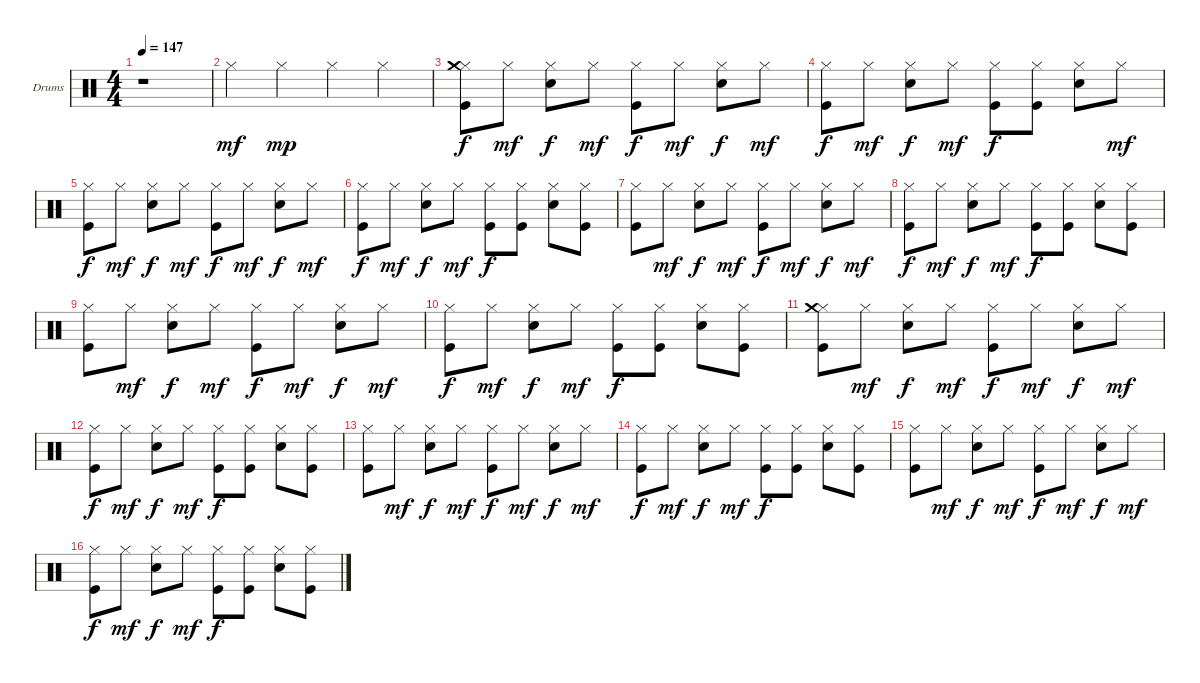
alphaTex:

\bracketExtendMode groupsimilarinstruments
\firstSystemTrackNameOrientation horizontal
\otherSystemsTrackNameOrientation horizontal
\track ("Drumkit" "Drums") {instrument percussion}
\staff {score}
\articulation defaults
\ts (4 4)
\tempo 147
\clef neutral
\ks c
r.1{dy mf} |
"Hi-Hat (closed)".4 "Hi-Hat (closed)".4{dy mp} "Hi-Hat (closed)".4 "Hi-Hat (closed)".4 |
("Hi-Hat (closed)" "Crash medium (hit)" "Kick (hit)").8{dy f} "Hi-Hat (closed)".8{dy mf} ("Hi-Hat (closed)" "Snare (hit) 2").8{dy f} "Hi-Hat (closed)".8{dy mf} ("Hi-Hat (closed)" "Kick (hit)").8{dy f} "Hi-Hat (closed)".8{dy mf} ("Hi-Hat (closed)" "Snare (hit) 2").8{dy f} "Hi-Hat (closed)".8{dy mf} |
("Hi-Hat (closed)" "Kick (hit)").8{dy f} "Hi-Hat (closed)".8{dy mf} ("Hi-Hat (closed)" "Snare (hit) 2").8{dy f} "Hi-Hat (closed)".8{dy mf} ("Hi-Hat (closed)" "Kick (hit)").8{dy f} ("Hi-Hat (closed)" "Kick (hit)").8 ("Hi-Hat (closed)" "Snare (hit) 2").8 "Hi-Hat (closed)".8{dy mf} |
("Hi-Hat (closed)" "Kick (hit)").8{dy f} "Hi-Hat (closed)".8{dy mf} ("Hi-Hat (closed)" "Snare (hit) 2").8{dy f} "Hi-Hat (closed)".8{dy mf} ("Hi-Hat (closed)" "Kick (hit)").8{dy f} "Hi-Hat (closed)".8{dy mf} ("Hi-Hat (closed)" "Snare (hit) 2").8{dy f} "Hi-Hat (closed)".8{dy mf} |
("Hi-Hat (closed)" "Kick (hit)").8{dy f} "Hi-Hat (closed)".8{dy mf} ("Hi-Hat (closed)" "Snare (hit) 2").8{dy f} "Hi-Hat (closed)".8{dy mf} ("Hi-Hat (closed)" "Kick (hit)").8{dy f} ("Hi-Hat (closed)" "Kick (hit)").8 ("Hi-Hat (closed)" "Snare (hit) 2").8 ("Hi-Hat (closed)" "Kick (hit)").8 |
("Hi-Hat (closed)" "Kick (hit)").8 "Hi-Hat (closed)".8{dy mf} ("Hi-Hat (closed)" "Snare (hit) 2").8{dy f} "Hi-Hat (closed)".8{dy mf} ("Hi-Hat (closed)" "Kick (hit)").8{dy f} "Hi-Hat (closed)".8{dy mf} ("Hi-Hat (closed)" "Snare (hit) 2").8{dy f} "Hi-Hat (closed)".8{dy mf} |
("Hi-Hat (closed)" "Kick (hit)").8{dy f} "Hi-Hat (closed)".8{dy mf} ("Hi-Hat (closed)" "Snare (hit) 2").8{dy f} "Hi-Hat (closed)".8{dy mf} ("Hi-Hat (closed)" "Kick (hit)").8{dy f} ("Hi-Hat (closed)" "Kick (hit)").8 ("Hi-Hat (closed)" "Snare (hit) 2").8 ("Hi-Hat (closed)" "Kick (hit)").8 |
("Hi-Hat (closed)" "Kick (hit)").8 "Hi-Hat (closed)".8{dy mf} ("Hi-Hat (closed)" "Snare (hit) 2").8{dy f} "Hi-Hat (closed)".8{dy mf} ("Hi-Hat (closed)" "Kick (hit)").8{dy f} "Hi-Hat (closed)".8{dy mf} ("Hi-Hat (closed)" "Snare (hit) 2").8{dy f} "Hi-Hat (closed)".8{dy mf} |
("Hi-Hat (closed)" "Kick (hit)").8{dy f} "Hi-Hat (closed)".8{dy mf} ("Hi-Hat (closed)" "Snare (hit) 2").8{dy f} "Hi-Hat (closed)".8{dy mf} ("Hi-Hat (closed)" "Kick (hit)").8{dy f} ("Hi-Hat (closed)" "Kick (hit)").8 ("Hi-Hat (closed)" "Snare (hit) 2").8 ("Hi-Hat (closed)" "Kick (hit)").8 |
("Hi-Hat (closed)" "Crash medium (hit)" "Kick (hit)").8 "Hi-Hat (closed)".8{dy mf} ("Hi-Hat (closed)" "Snare (hit) 2").8{dy f} "Hi-Hat (closed)".8{dy mf} ("Hi-Hat (closed)" "Kick (hit)").8{dy f} "Hi-Hat (closed)".8{dy mf} ("Hi-Hat (closed)" "Snare (hit) 2").8{dy f} "Hi-Hat (closed)".8{dy mf} |
("Hi-Hat (closed)" "Kick (hit)").8{dy f} "Hi-Hat (closed)".8{dy mf} ("Hi-Hat (closed)" "Snare (hit) 2").8{dy f} "Hi-Hat (closed)".8{dy mf} ("Hi-Hat (closed)" "Kick (hit)").8{dy f} ("Hi-Hat (closed)" "Kick (hit)").8 ("Hi-Hat (closed)" "Snare (hit) 2").8 ("Hi-Hat (closed)" "Kick (hit)").8 |
("Hi-Hat (closed)" "Kick (hit)").8 "Hi-Hat (closed)".8{dy mf} ("Hi-Hat (closed)" "Snare (hit) 2").8{dy f} "Hi-Hat (closed)".8{dy mf} ("Hi-Hat (closed)" "Kick (hit)").8{dy f} "Hi-Hat (closed)".8{dy mf} ("Hi-Hat (closed)" "Snare (hit) 2").8{dy f} "Hi-Hat (closed)".8{dy mf} |
("Hi-Hat (closed)" "Kick (hit)").8{dy f} "Hi-Hat (closed)".8{dy mf} ("Hi-Hat (closed)" "Snare (hit) 2").8{dy f} "Hi-Hat (closed)".8{dy mf} ("Hi-Hat (closed)" "Kick (hit)").8{dy f} ("Hi-Hat (closed)" "Kick (hit)").8 ("Hi-Hat (closed)" "Snare (hit) 2").8 ("Hi-Hat (closed)" "Kick (hit)").8 |
("Hi-Hat (closed)" "Kick (hit)").8 "Hi-Hat (closed)".8{dy mf} ("Hi-Hat (closed)" "Snare (hit) 2").8{dy f} "Hi-Hat (closed)".8{dy mf} ("Hi-Hat (closed)" "Kick (hit)").8{dy f} "Hi-Hat (closed)".8{dy mf} ("Hi-Hat (closed)" "Snare (hit) 2").8{dy f} "Hi-Hat (closed)".8{dy mf} |
("Hi-Hat (closed)" "Kick (hit)").8{dy f} "Hi-Hat (closed)".8{dy mf} ("Hi-Hat (closed)" "Snare (hit) 2").8{dy f} "Hi-Hat (closed)".8{dy mf} ("Hi-Hat (closed)" "Kick (hit)").8{dy f} ("Hi-Hat (closed)" "Kick (hit)").8 ("Hi-Hat (closed)" "Snare (hit) 2").8 ("Hi-Hat (closed)" "Kick (hit)").8
